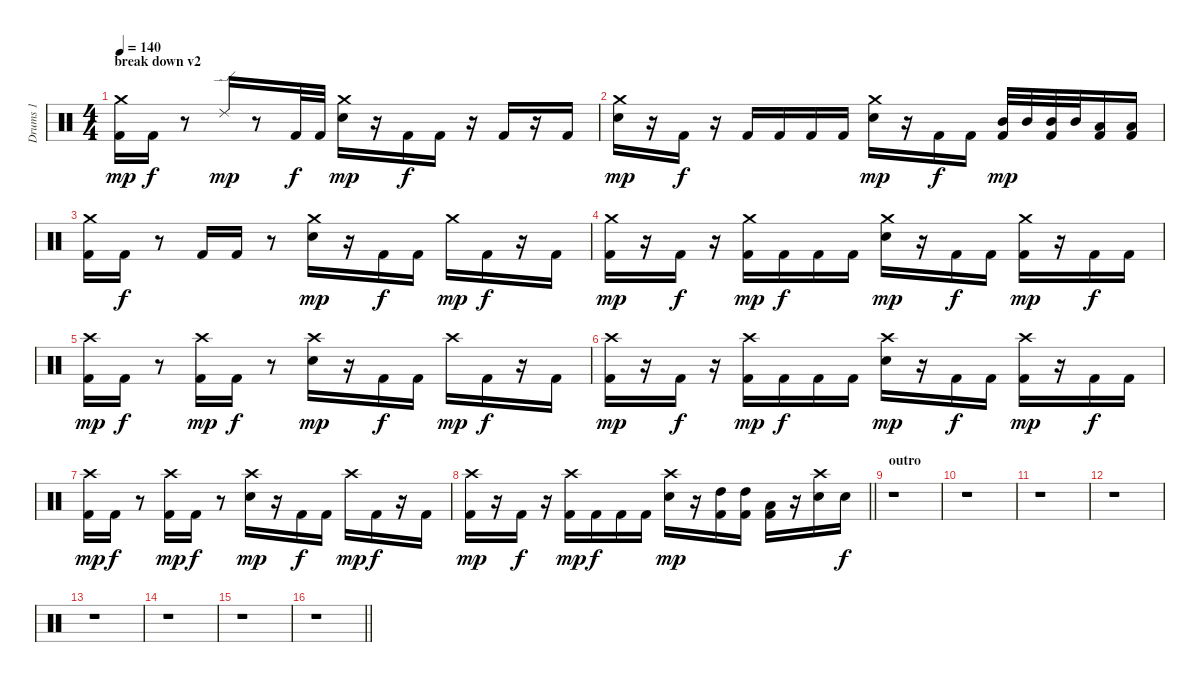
\track ("Drums 1" "Drums 1") {instrument percussion}
\staff {score}
\articulation defaults
\ts (4 4)
\section ("" "break down v2")
\tempo 140
\clef neutral
\ks c
("Crash medium (hit)" "Kick (hit) 2").16{dy mp} "Kick (hit) 2".16{dy f} r.8 "Ride (edge) 2".16{dy mp} r.8 "Kick (hit) 2".32{dy f} "Kick (hit) 2".32 ("Crash medium (hit)" "Snare (hit) 2").16{dy mp} r.16 "Kick (hit) 2".16{dy f} "Kick (hit) 2".16 r.16 "Kick (hit) 2".16 r.16 "Kick (hit) 2".16 |
("Crash medium (hit)" "Snare (hit) 2").16{dy mp} r.16 "Kick (hit) 2".16{dy f} r.16 "Kick (hit) 2".16 "Kick (hit) 2".16 "Kick (hit) 2".16 "Kick (hit) 2".16 ("Crash medium (hit)" "Snare (hit) 2").16{dy mp} r.16 "Kick (hit) 2".16{dy f} "Kick (hit) 2".16 ("Mid Tom (hit)" "Kick (hit) 2").32{dy mp} "Mid Tom (hit)".32 ("Mid Tom (hit)" "Kick (hit) 2").32 "Mid Tom (hit)".32 ("Low Tom (hit)" "Kick (hit) 2").16 ("Low Tom (hit)" "Kick (hit) 2").16 |
("Crash medium (hit)" "Kick (hit) 2").16 "Kick (hit) 2".16{dy f} r.8 "Kick (hit) 2".16 "Kick (hit) 2".16 r.8 ("Crash medium (hit)" "Snare (hit) 2").16{dy mp} r.16 "Kick (hit) 2".16{dy f} "Kick (hit) 2".16 "Crash medium (hit)".16{dy mp} "Kick (hit) 2".16{dy f} r.16 "Kick (hit) 2".16 |
("Crash medium (hit)" "Kick (hit) 2").16{dy mp} r.16 "Kick (hit) 2".16{dy f} r.16 ("Crash medium (hit)" "Kick (hit) 2").16{dy mp} "Kick (hit) 2".16{dy f} "Kick (hit) 2".16 "Kick (hit) 2".16 ("Crash medium (hit)" "Snare (hit) 2").16{dy mp} r.16 "Kick (hit) 2".16{dy f} "Kick (hit) 2".16 ("Crash medium (hit)" "Kick (hit) 2").16{dy mp} r.16 "Kick (hit) 2".16{dy f} "Kick (hit) 2".16 |
("Crash high (hit)" "Kick (hit) 2").16{dy mp} "Kick (hit) 2".16{dy f} r.8 ("Crash high (hit)" "Kick (hit) 2").16{dy mp} "Kick (hit) 2".16{dy f} r.8 ("Crash high (hit)" "Snare (hit) 2").16{dy mp} r.16 "Kick (hit) 2".16{dy f} "Kick (hit) 2".16 "Crash high (hit)".16{dy mp} "Kick (hit) 2".16{dy f} r.16 "Kick (hit) 2".16 |
("Crash high (hit)" "Kick (hit) 2").16{dy mp} r.16 "Kick (hit) 2".16{dy f} r.16 ("Crash high (hit)" "Kick (hit) 2").16{dy mp} "Kick (hit) 2".16{dy f} "Kick (hit) 2".16 "Kick (hit) 2".16 ("Crash high (hit)" "Snare (hit) 2").16{dy mp} r.16 "Kick (hit) 2".16{dy f} "Kick (hit) 2".16 ("Crash high (hit)" "Kick (hit) 2").16{dy mp} r.16 "Kick (hit) 2".16{dy f} "Kick (hit) 2".16 |
("Crash high (hit)" "Kick (hit) 2").16{dy mp} "Kick (hit) 2".16{dy f} r.8 ("Crash high (hit)" "Kick (hit) 2").16{dy mp} "Kick (hit) 2".16{dy f} r.8 ("Crash high (hit)" "Snare (hit) 2").16{dy mp} r.16 "Kick (hit) 2".16{dy f} "Kick (hit) 2".16 "Crash high (hit)".16{dy mp} "Kick (hit) 2".16{dy f} r.16 "Kick (hit) 2".16 |
\barLineRight lightlight
("Crash high (hit)" "Kick (hit) 2").16{dy mp} r.16 "Kick (hit) 2".16{dy f} r.16 ("Crash high (hit)" "Kick (hit) 2").16{dy mp} "Kick (hit) 2".16{dy f} "Kick (hit) 2".16 "Kick (hit) 2".16 ("Crash high (hit)" "Snare (hit) 2").16{dy mp} r.16 ("High Tom (hit)" "Kick (hit) 2").16 ("High Tom (hit)" "Kick (hit) 2").16 ("Low Tom (hit)" "Kick (hit) 2").16 r.16 ("Crash high (hit)" "Snare (hit) 2").16 "Snare (hit) 2".16{dy f} |
\section ("" "outro")
r.1 |
r.1 |
r.1 |
r.1 |
r.1 |
r.1 |
r.1 |
\barLineRight lightlight
r.1
